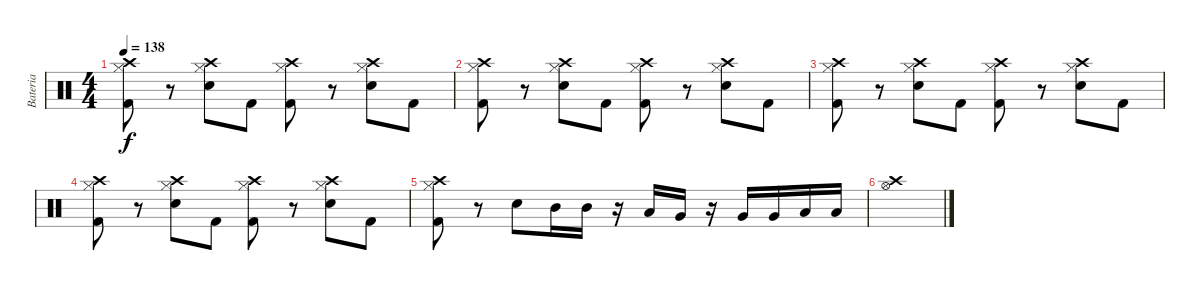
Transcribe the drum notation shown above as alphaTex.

\track ("Bateria" "Bateria") {instrument percussion}
\staff {score}
\articulation defaults
\ts (4 4)
\tempo 138
\clef neutral
\ks c
("Crash high (hit)" "Hi-Hat (closed)" "Kick (hit) 2").8{dy f} r.8 ("Crash high (hit)" "Hi-Hat (closed)" "Electric Snare (hit)").8 "Kick (hit) 2".8 ("Crash high (hit)" "Hi-Hat (closed)" "Kick (hit) 2").8 r.8 ("Crash high (hit)" "Hi-Hat (closed)" "Electric Snare (hit)").8 "Kick (hit) 2".8 |
("Crash high (hit)" "Hi-Hat (closed)" "Kick (hit) 2").8 r.8 ("Crash high (hit)" "Hi-Hat (closed)" "Electric Snare (hit)").8 "Kick (hit) 2".8 ("Crash high (hit)" "Hi-Hat (closed)" "Kick (hit) 2").8 r.8 ("Crash high (hit)" "Hi-Hat (closed)" "Electric Snare (hit)").8 "Kick (hit) 2".8 |
("Crash high (hit)" "Hi-Hat (closed)" "Kick (hit) 2").8 r.8 ("Crash high (hit)" "Hi-Hat (closed)" "Electric Snare (hit)").8 "Kick (hit) 2".8 ("Crash high (hit)" "Hi-Hat (closed)" "Kick (hit) 2").8 r.8 ("Crash high (hit)" "Hi-Hat (closed)" "Electric Snare (hit)").8 "Kick (hit) 2".8 |
("Crash high (hit)" "Hi-Hat (closed)" "Kick (hit) 2").8 r.8 ("Crash high (hit)" "Hi-Hat (closed)" "Electric Snare (hit)").8 "Kick (hit) 2".8 ("Crash high (hit)" "Hi-Hat (closed)" "Kick (hit) 2").8 r.8 ("Crash high (hit)" "Hi-Hat (closed)" "Electric Snare (hit)").8 "Kick (hit) 2".8 |
("Crash high (hit)" "Hi-Hat (closed)" "Kick (hit) 2").8 r.8 "Electric Snare (hit)".8 "Mid Tom (hit)".16 "Mid Tom (hit)".16 r.16 "Low Tom (hit)".16 "Very Low Tom (hit)".16 r.16 "Very Low Tom (hit)".16 "Very Low Tom (hit)".16 "Low Floor Tom (hit)".16 "Low Floor Tom (hit)".16 |
("Crash high (hit)" "Hi-Hat (open)").1
